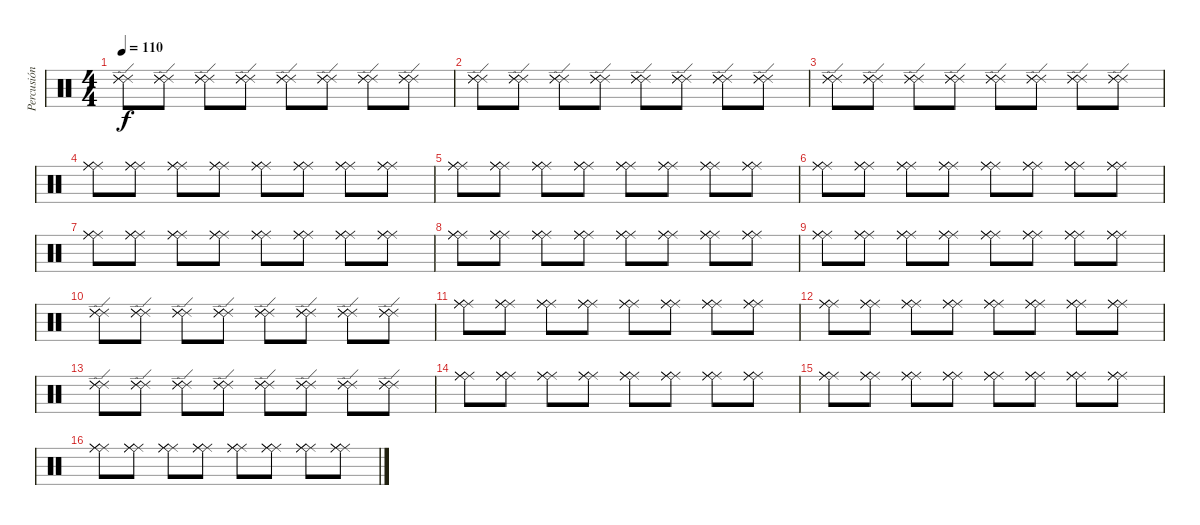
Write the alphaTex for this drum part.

\track ("Percusión" "Percusión") {instrument percussion}
\staff {score}
\articulation defaults
\ts (4 4)
\tempo 110
\tempo 140
\tempo 110
\clef neutral
\ks c
("Ride (edge) 2" "Ride (edge) 2" "Ride (edge) 2").8{dy f} ("Ride (edge) 2" "Ride (edge) 2" "Ride (edge) 2").8 ("Ride (edge) 2" "Ride (edge) 2" "Ride (edge) 2").8 ("Ride (edge) 2" "Ride (edge) 2" "Ride (edge) 2").8 ("Ride (edge) 2" "Ride (edge) 2" "Ride (edge) 2").8 ("Ride (edge) 2" "Ride (edge) 2" "Ride (edge) 2").8 ("Ride (edge) 2" "Ride (edge) 2" "Ride (edge) 2").8 ("Ride (edge) 2" "Ride (edge) 2" "Ride (edge) 2").8 |
("Ride (edge) 2" "Ride (edge) 2" "Ride (edge) 2").8 ("Ride (edge) 2" "Ride (edge) 2" "Ride (edge) 2").8 ("Ride (edge) 2" "Ride (edge) 2" "Ride (edge) 2").8 ("Ride (edge) 2" "Ride (edge) 2" "Ride (edge) 2").8 ("Ride (edge) 2" "Ride (edge) 2" "Ride (edge) 2").8 ("Ride (edge) 2" "Ride (edge) 2" "Ride (edge) 2").8 ("Ride (edge) 2" "Ride (edge) 2" "Ride (edge) 2").8 ("Ride (edge) 2" "Ride (edge) 2" "Ride (edge) 2").8 |
("Ride (edge) 2" "Ride (edge) 2" "Ride (edge) 2").8 ("Ride (edge) 2" "Ride (edge) 2" "Ride (edge) 2").8 ("Ride (edge) 2" "Ride (edge) 2" "Ride (edge) 2").8 ("Ride (edge) 2" "Ride (edge) 2" "Ride (edge) 2").8 ("Ride (edge) 2" "Ride (edge) 2" "Ride (edge) 2").8 ("Ride (edge) 2" "Ride (edge) 2" "Ride (edge) 2").8 ("Ride (edge) 2" "Ride (edge) 2" "Ride (edge) 2").8 ("Ride (edge) 2" "Ride (edge) 2" "Ride (edge) 2").8 |
("Ride (middle)" "Ride (middle)" "Ride (middle)").8 ("Ride (middle)" "Ride (middle)" "Ride (middle)").8 ("Ride (middle)" "Ride (middle)" "Ride (middle)").8 ("Ride (middle)" "Ride (middle)" "Ride (middle)").8 ("Ride (middle)" "Ride (middle)" "Ride (middle)").8 ("Ride (middle)" "Ride (middle)" "Ride (middle)").8 ("Ride (middle)" "Ride (middle)" "Ride (middle)").8 ("Ride (middle)" "Ride (middle)" "Ride (middle)").8 |
("Ride (middle)" "Ride (middle)" "Ride (middle)").8 ("Ride (middle)" "Ride (middle)" "Ride (middle)").8 ("Ride (middle)" "Ride (middle)" "Ride (middle)").8 ("Ride (middle)" "Ride (middle)" "Ride (middle)").8 ("Ride (middle)" "Ride (middle)" "Ride (middle)").8 ("Ride (middle)" "Ride (middle)" "Ride (middle)").8 ("Ride (middle)" "Ride (middle)" "Ride (middle)").8 ("Ride (middle)" "Ride (middle)" "Ride (middle)").8 |
("Ride (middle)" "Ride (middle)" "Ride (middle)").8 ("Ride (middle)" "Ride (middle)" "Ride (middle)").8 ("Ride (middle)" "Ride (middle)" "Ride (middle)").8 ("Ride (middle)" "Ride (middle)" "Ride (middle)").8 ("Ride (middle)" "Ride (middle)" "Ride (middle)").8 ("Ride (middle)" "Ride (middle)" "Ride (middle)").8 ("Ride (middle)" "Ride (middle)" "Ride (middle)").8 ("Ride (middle)" "Ride (middle)" "Ride (middle)").8 |
("Ride (middle)" "Ride (middle)" "Ride (middle)").8 ("Ride (middle)" "Ride (middle)" "Ride (middle)").8 ("Ride (middle)" "Ride (middle)" "Ride (middle)").8 ("Ride (middle)" "Ride (middle)" "Ride (middle)").8 ("Ride (middle)" "Ride (middle)" "Ride (middle)").8 ("Ride (middle)" "Ride (middle)" "Ride (middle)").8 ("Ride (middle)" "Ride (middle)" "Ride (middle)").8 ("Ride (middle)" "Ride (middle)" "Ride (middle)").8 |
("Ride (middle)" "Ride (middle)" "Ride (middle)").8 ("Ride (middle)" "Ride (middle)" "Ride (middle)").8 ("Ride (middle)" "Ride (middle)" "Ride (middle)").8 ("Ride (middle)" "Ride (middle)" "Ride (middle)").8 ("Ride (middle)" "Ride (middle)" "Ride (middle)").8 ("Ride (middle)" "Ride (middle)" "Ride (middle)").8 ("Ride (middle)" "Ride (middle)" "Ride (middle)").8 ("Ride (middle)" "Ride (middle)" "Ride (middle)").8 |
("Ride (middle)" "Ride (middle)" "Ride (middle)").8 ("Ride (middle)" "Ride (middle)" "Ride (middle)").8 ("Ride (middle)" "Ride (middle)" "Ride (middle)").8 ("Ride (middle)" "Ride (middle)" "Ride (middle)").8 ("Ride (middle)" "Ride (middle)" "Ride (middle)").8 ("Ride (middle)" "Ride (middle)" "Ride (middle)").8 ("Ride (middle)" "Ride (middle)" "Ride (middle)").8 ("Ride (middle)" "Ride (middle)" "Ride (middle)").8 |
("Ride (edge) 2" "Ride (edge) 2" "Ride (edge) 2").8 ("Ride (edge) 2" "Ride (edge) 2" "Ride (edge) 2").8 ("Ride (edge) 2" "Ride (edge) 2" "Ride (edge) 2").8 ("Ride (edge) 2" "Ride (edge) 2" "Ride (edge) 2").8 ("Ride (edge) 2" "Ride (edge) 2" "Ride (edge) 2").8 ("Ride (edge) 2" "Ride (edge) 2" "Ride (edge) 2").8 ("Ride (edge) 2" "Ride (edge) 2" "Ride (edge) 2").8 ("Ride (edge) 2" "Ride (edge) 2" "Ride (edge) 2").8 |
("Ride (middle)" "Ride (middle)" "Ride (middle)").8 ("Ride (middle)" "Ride (middle)" "Ride (middle)").8 ("Ride (middle)" "Ride (middle)" "Ride (middle)").8 ("Ride (middle)" "Ride (middle)" "Ride (middle)").8 ("Ride (middle)" "Ride (middle)" "Ride (middle)").8 ("Ride (middle)" "Ride (middle)" "Ride (middle)").8 ("Ride (middle)" "Ride (middle)" "Ride (middle)").8 ("Ride (middle)" "Ride (middle)" "Ride (middle)").8 |
("Ride (middle)" "Ride (middle)" "Ride (middle)").8 ("Ride (middle)" "Ride (middle)" "Ride (middle)").8 ("Ride (middle)" "Ride (middle)" "Ride (middle)").8 ("Ride (middle)" "Ride (middle)" "Ride (middle)").8 ("Ride (middle)" "Ride (middle)" "Ride (middle)").8 ("Ride (middle)" "Ride (middle)" "Ride (middle)").8 ("Ride (middle)" "Ride (middle)" "Ride (middle)").8 ("Ride (middle)" "Ride (middle)" "Ride (middle)").8 |
("Ride (edge) 2" "Ride (edge) 2" "Ride (edge) 2").8 ("Ride (edge) 2" "Ride (edge) 2" "Ride (edge) 2").8 ("Ride (edge) 2" "Ride (edge) 2" "Ride (edge) 2").8 ("Ride (edge) 2" "Ride (edge) 2" "Ride (edge) 2").8 ("Ride (edge) 2" "Ride (edge) 2" "Ride (edge) 2").8 ("Ride (edge) 2" "Ride (edge) 2" "Ride (edge) 2").8 ("Ride (edge) 2" "Ride (edge) 2" "Ride (edge) 2").8 ("Ride (edge) 2" "Ride (edge) 2" "Ride (edge) 2").8 |
("Ride (middle)" "Ride (middle)" "Ride (middle)").8 ("Ride (middle)" "Ride (middle)" "Ride (middle)").8 ("Ride (middle)" "Ride (middle)" "Ride (middle)").8 ("Ride (middle)" "Ride (middle)" "Ride (middle)").8 ("Ride (middle)" "Ride (middle)" "Ride (middle)").8 ("Ride (middle)" "Ride (middle)" "Ride (middle)").8 ("Ride (middle)" "Ride (middle)" "Ride (middle)").8 ("Ride (middle)" "Ride (middle)" "Ride (middle)").8 |
("Ride (middle)" "Ride (middle)" "Ride (middle)").8 ("Ride (middle)" "Ride (middle)" "Ride (middle)").8 ("Ride (middle)" "Ride (middle)" "Ride (middle)").8 ("Ride (middle)" "Ride (middle)" "Ride (middle)").8 ("Ride (middle)" "Ride (middle)" "Ride (middle)").8 ("Ride (middle)" "Ride (middle)" "Ride (middle)").8 ("Ride (middle)" "Ride (middle)" "Ride (middle)").8 ("Ride (middle)" "Ride (middle)" "Ride (middle)").8 |
("Ride (middle)" "Ride (middle)" "Ride (middle)").8 ("Ride (middle)" "Ride (middle)" "Ride (middle)").8 ("Ride (middle)" "Ride (middle)" "Ride (middle)").8 ("Ride (middle)" "Ride (middle)" "Ride (middle)").8 ("Ride (middle)" "Ride (middle)" "Ride (middle)").8 ("Ride (middle)" "Ride (middle)" "Ride (middle)").8 ("Ride (middle)" "Ride (middle)" "Ride (middle)").8 ("Ride (middle)" "Ride (middle)" "Ride (middle)").8
